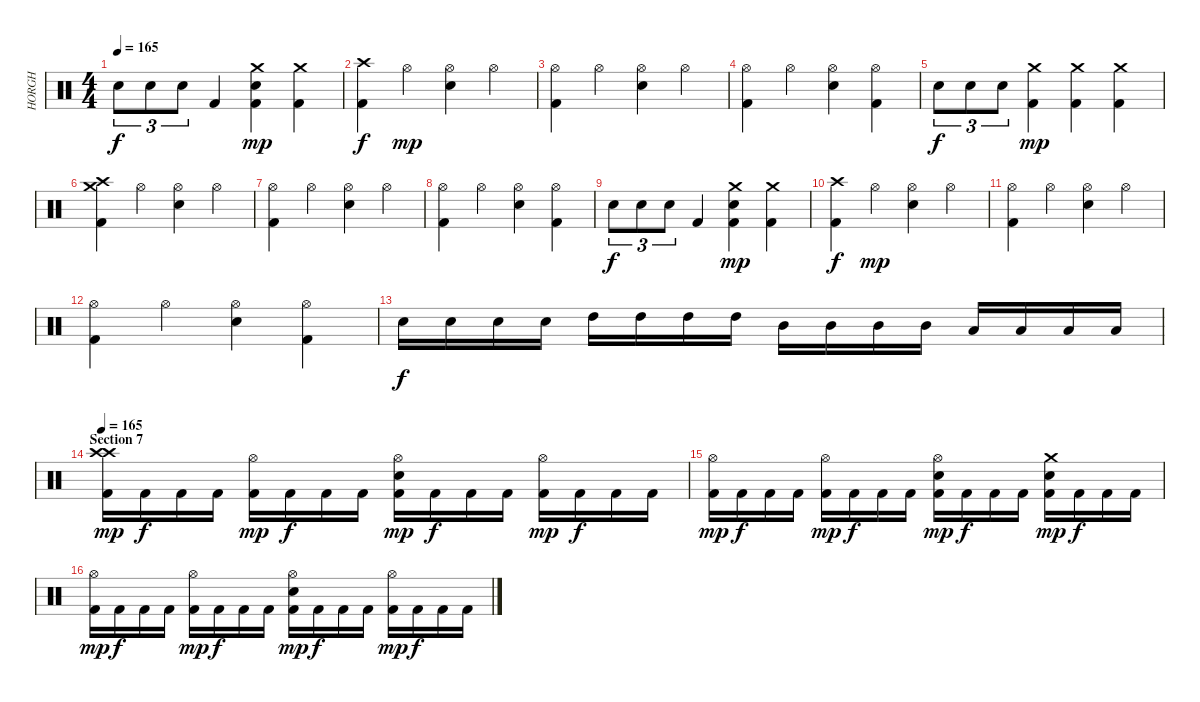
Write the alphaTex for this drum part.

\track ("HORGH" "HORGH") {instrument percussion}
\staff {score}
\articulation defaults
\ts (4 4)
\tempo 165
\clef neutral
\ks c "Electric Snare (hit)".8{tu (3 2) dy f} "Electric Snare (hit)".8{tu (3 2)} "Electric Snare (hit)".8{tu (3 2)} "Kick (hit) 2".4
("Crash medium (hit)" "Electric Snare (hit)" "Kick (hit) 2").4{dy mp} ("Crash medium (hit)" "Kick (hit) 2").4 |
("Crash high (hit)" "Kick (hit) 2").4{dy f} "Hi-Hat (open)".4{dy mp} ("Hi-Hat (open)" "Electric Snare (hit)").4 "Hi-Hat (open)".4 |
("Hi-Hat (open)" "Kick (hit) 2").4 "Hi-Hat (open)".4 ("Hi-Hat (open)" "Electric Snare (hit)").4 "Hi-Hat (open)".4 |
("Hi-Hat (open)" "Kick (hit) 2").4 "Hi-Hat (open)".4 ("Hi-Hat (open)" "Electric Snare (hit)").4 ("Hi-Hat (open)" "Kick (hit) 2").4 |
"Electric Snare (hit)".8{tu (3 2) dy f} "Electric Snare (hit)".8{tu (3 2)} "Electric Snare (hit)".8{tu (3 2)} ("Crash medium (hit)" "Kick (hit) 2").4{dy mp} ("Crash medium (hit)" "Kick (hit) 2").4 ("Crash medium (hit)" "Kick (hit) 2").4 |
("Crash medium (hit)" "Crash high (hit)" "Kick (hit) 2").4 "Hi-Hat (open)".4 ("Hi-Hat (open)" "Electric Snare (hit)").4 "Hi-Hat (open)".4 |
("Hi-Hat (open)" "Kick (hit) 2").4 "Hi-Hat (open)".4 ("Hi-Hat (open)" "Electric Snare (hit)").4 "Hi-Hat (open)".4 |
("Hi-Hat (open)" "Kick (hit) 2").4 "Hi-Hat (open)".4 ("Hi-Hat (open)" "Electric Snare (hit)").4 ("Hi-Hat (open)" "Kick (hit) 2").4 |
"Electric Snare (hit)".8{tu (3 2) dy f} "Electric Snare (hit)".8{tu (3 2)} "Electric Snare (hit)".8{tu (3 2)} "Kick (hit) 2".4 ("Crash medium (hit)" "Electric Snare (hit)" "Kick (hit) 2").4{dy mp} ("Crash medium (hit)" "Kick (hit) 2").4 |
("Crash high (hit)" "Kick (hit) 2").4{dy f} "Hi-Hat (open)".4{dy mp} ("Hi-Hat (open)" "Electric Snare (hit)").4 "Hi-Hat (open)".4 |
("Hi-Hat (open)" "Kick (hit) 2").4 "Hi-Hat (open)".4 ("Hi-Hat (open)" "Electric Snare (hit)").4 "Hi-Hat (open)".4 |
("Hi-Hat (open)" "Kick (hit) 2").4 "Hi-Hat (open)".4 ("Hi-Hat (open)" "Electric Snare (hit)").4 ("Hi-Hat (open)" "Kick (hit) 2").4 |
"Electric Snare (hit)".16{dy f} "Electric Snare (hit)".16 "Electric Snare (hit)".16 "Electric Snare (hit)".16 "High Tom (hit)".16 "High Tom (hit)".16 "High Tom (hit)".16 "High Tom (hit)".16 "Mid Tom (hit)".16 "Mid Tom (hit)".16 "Mid Tom (hit)".16 "Mid Tom (hit)".16 "Low Tom (hit)".16 "Low Tom (hit)".16 "Low Tom (hit)".16 "Low Tom (hit)".16 |
\section ("" "Section 7")
\tempo 165
("Crash high (hit)" "Crash high (hit)" "Kick (hit) 2").16{dy mp} "Kick (hit) 2".16{dy f} "Kick (hit) 2".16 "Kick (hit) 2".16 ("Hi-Hat (open)" "Kick (hit) 2").16{dy mp} "Kick (hit) 2".16{dy f} "Kick (hit) 2".16 "Kick (hit) 2".16 ("Hi-Hat (open)" "Electric Snare (hit)" "Kick (hit) 2").16{dy mp} "Kick (hit) 2".16{dy f} "Kick (hit) 2".16 "Kick (hit) 2".16 ("Hi-Hat (open)" "Kick (hit) 2").16{dy mp} "Kick (hit) 2".16{dy f} "Kick (hit) 2".16 "Kick (hit) 2".16 |
("Hi-Hat (open)" "Kick (hit) 2").16{dy mp} "Kick (hit) 2".16{dy f} "Kick (hit) 2".16 "Kick (hit) 2".16 ("Hi-Hat (open)" "Kick (hit) 2").16{dy mp} "Kick (hit) 2".16{dy f} "Kick (hit) 2".16 "Kick (hit) 2".16 ("Hi-Hat (open)" "Electric Snare (hit)" "Kick (hit) 2").16{dy mp} "Kick (hit) 2".16{dy f} "Kick (hit) 2".16 "Kick (hit) 2".16 ("Crash medium (hit)" "Electric Snare (hit)" "Kick (hit) 2").16{dy mp} "Kick (hit) 2".16{dy f} "Kick (hit) 2".16 "Kick (hit) 2".16 |
("Hi-Hat (open)" "Kick (hit) 2").16{dy mp} "Kick (hit) 2".16{dy f} "Kick (hit) 2".16 "Kick (hit) 2".16 ("Hi-Hat (open)" "Kick (hit) 2").16{dy mp} "Kick (hit) 2".16{dy f} "Kick (hit) 2".16 "Kick (hit) 2".16 ("Hi-Hat (open)" "Electric Snare (hit)" "Kick (hit) 2").16{dy mp} "Kick (hit) 2".16{dy f} "Kick (hit) 2".16 "Kick (hit) 2".16 ("Hi-Hat (open)" "Kick (hit) 2").16{dy mp} "Kick (hit) 2".16{dy f} "Kick (hit) 2".16 "Kick (hit) 2".16
